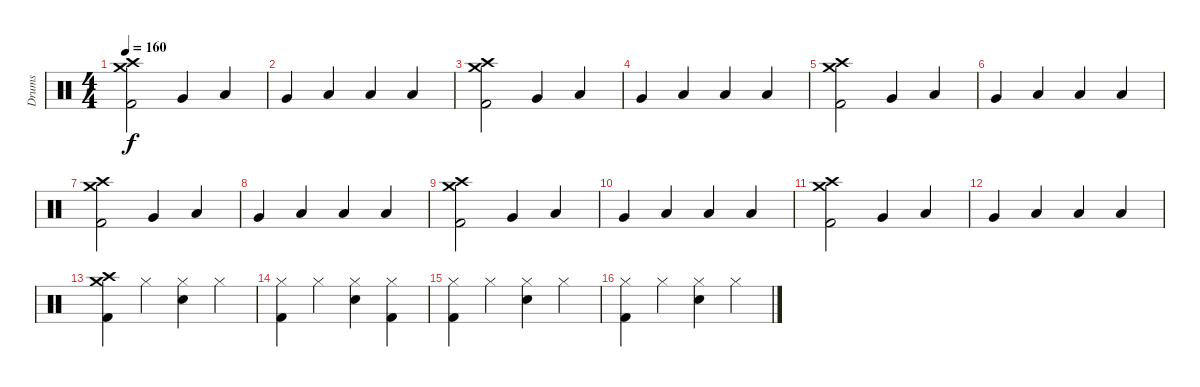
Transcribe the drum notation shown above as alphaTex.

\track ("Drums" "Drums") {instrument percussion}
\staff {score}
\articulation defaults
\ts (4 4)
\tempo 160
\clef neutral
\ks c
("Crash medium (hit)" "Crash high (hit)" "Kick (hit) 2").2{dy f} "Very Low Tom (hit)".4 "Low Floor Tom (hit)".4 |
"Very Low Tom (hit)".4 "Low Floor Tom (hit)".4 "Low Tom (hit)".4 "Low Floor Tom (hit)".4 |
("Crash medium (hit)" "Crash high (hit)" "Kick (hit) 2").2 "Very Low Tom (hit)".4 "Low Floor Tom (hit)".4 |
"Very Low Tom (hit)".4 "Low Floor Tom (hit)".4 "Low Tom (hit)".4 "Low Floor Tom (hit)".4 |
("Crash medium (hit)" "Crash high (hit)" "Kick (hit) 2").2 "Very Low Tom (hit)".4 "Low Floor Tom (hit)".4 |
"Very Low Tom (hit)".4 "Low Floor Tom (hit)".4 "Low Tom (hit)".4 "Low Floor Tom (hit)".4 |
("Crash medium (hit)" "Crash high (hit)" "Kick (hit) 2").2 "Very Low Tom (hit)".4 "Low Floor Tom (hit)".4 |
"Very Low Tom (hit)".4 "Low Floor Tom (hit)".4 "Low Tom (hit)".4 "Low Floor Tom (hit)".4 |
("Crash medium (hit)" "Crash high (hit)" "Kick (hit) 2").2 "Very Low Tom (hit)".4 "Low Floor Tom (hit)".4 |
"Very Low Tom (hit)".4 "Low Floor Tom (hit)".4 "Low Tom (hit)".4 "Low Floor Tom (hit)".4 |
("Crash medium (hit)" "Crash high (hit)" "Kick (hit) 2").2 "Very Low Tom (hit)".4 "Low Floor Tom (hit)".4 |
"Very Low Tom (hit)".4 "Low Floor Tom (hit)".4 "Low Tom (hit)".4 "Low Floor Tom (hit)".4 |
("Crash medium (hit)" "Crash high (hit)" "Kick (hit) 2").4 "Hi-Hat (closed)".4 ("Hi-Hat (closed)" "Snare (hit) 2").4 "Hi-Hat (closed)".4 |
("Hi-Hat (closed)" "Kick (hit) 2").4 "Hi-Hat (closed)".4 ("Hi-Hat (closed)" "Snare (hit) 2").4 ("Hi-Hat (closed)" "Kick (hit) 2").4 |
("Hi-Hat (closed)" "Kick (hit) 2").4 "Hi-Hat (closed)".4 ("Hi-Hat (closed)" "Snare (hit) 2").4 "Hi-Hat (closed)".4 |
("Hi-Hat (closed)" "Kick (hit) 2").4 "Hi-Hat (closed)".4 ("Hi-Hat (closed)" "Snare (hit) 2").4 "Hi-Hat (closed)".4
